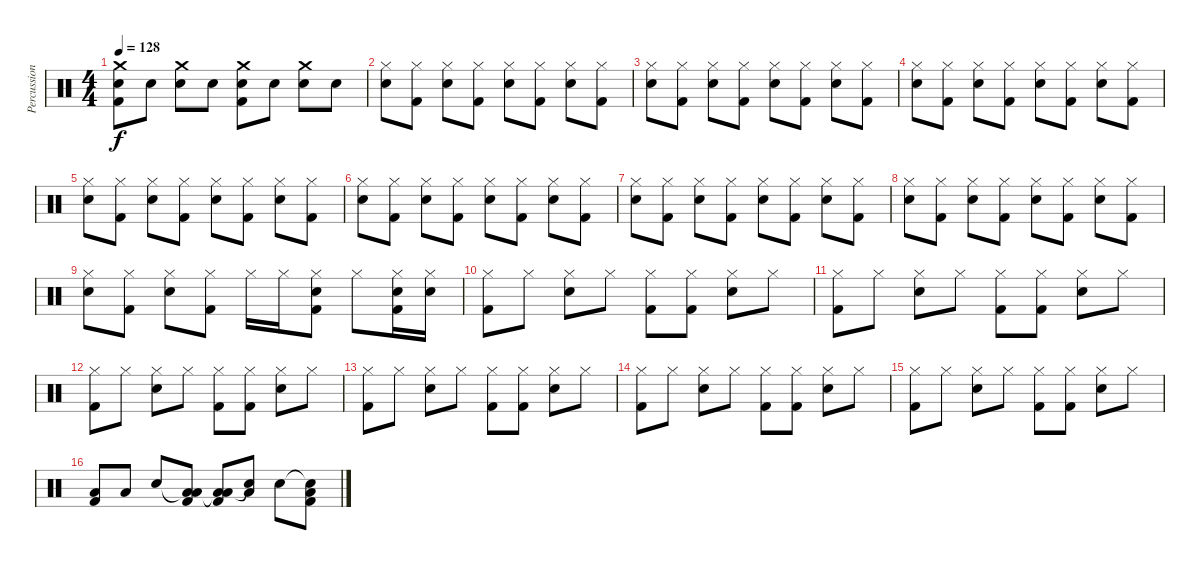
\track ("Percussion" "Percussion") {instrument percussion}
\staff {score}
\articulation defaults
\ts (4 4)
\tempo 128
\clef neutral
\ks c
("Crash medium (hit)" "Snare (hit) 2" "Kick (hit) 2").8{dy f} "Snare (hit) 2".8 ("Crash medium (hit)" "Snare (hit) 2").8 "Snare (hit) 2".8 ("Crash medium (hit)" "Snare (hit) 2" "Kick (hit) 2").8 "Snare (hit) 2".8 ("Crash medium (hit)" "Snare (hit) 2").8 "Snare (hit) 2".8 |
("Hi-Hat (closed)" "Snare (hit) 2").8 ("Hi-Hat (closed)" "Kick (hit) 2").8 ("Hi-Hat (closed)" "Snare (hit) 2").8 ("Hi-Hat (closed)" "Kick (hit) 2").8 ("Hi-Hat (closed)" "Snare (hit) 2").8 ("Hi-Hat (closed)" "Kick (hit) 2").8 ("Hi-Hat (closed)" "Snare (hit) 2").8 ("Hi-Hat (closed)" "Kick (hit) 2").8 |
("Hi-Hat (closed)" "Snare (hit) 2").8 ("Hi-Hat (closed)" "Kick (hit) 2").8 ("Hi-Hat (closed)" "Snare (hit) 2").8 ("Hi-Hat (closed)" "Kick (hit) 2").8 ("Hi-Hat (closed)" "Snare (hit) 2").8 ("Hi-Hat (closed)" "Kick (hit) 2").8 ("Hi-Hat (closed)" "Snare (hit) 2").8 ("Hi-Hat (closed)" "Kick (hit) 2").8 |
("Hi-Hat (closed)" "Snare (hit) 2").8 ("Hi-Hat (closed)" "Kick (hit) 2").8 ("Hi-Hat (closed)" "Snare (hit) 2").8 ("Hi-Hat (closed)" "Kick (hit) 2").8 ("Hi-Hat (closed)" "Snare (hit) 2").8 ("Hi-Hat (closed)" "Kick (hit) 2").8 ("Hi-Hat (closed)" "Snare (hit) 2").8 ("Hi-Hat (closed)" "Kick (hit) 2").8 |
("Hi-Hat (closed)" "Snare (hit) 2").8 ("Hi-Hat (closed)" "Kick (hit) 2").8 ("Hi-Hat (closed)" "Snare (hit) 2").8 ("Hi-Hat (closed)" "Kick (hit) 2").8 ("Hi-Hat (closed)" "Snare (hit) 2").8 ("Hi-Hat (closed)" "Kick (hit) 2").8 ("Hi-Hat (closed)" "Snare (hit) 2").8 ("Hi-Hat (closed)" "Kick (hit) 2").8 |
("Hi-Hat (closed)" "Snare (hit) 2").8 ("Hi-Hat (closed)" "Kick (hit) 2").8 ("Hi-Hat (closed)" "Snare (hit) 2").8 ("Hi-Hat (closed)" "Kick (hit) 2").8 ("Hi-Hat (closed)" "Snare (hit) 2").8 ("Hi-Hat (closed)" "Kick (hit) 2").8 ("Hi-Hat (closed)" "Snare (hit) 2").8 ("Hi-Hat (closed)" "Kick (hit) 2").8 |
("Hi-Hat (closed)" "Snare (hit) 2").8 ("Hi-Hat (closed)" "Kick (hit) 2").8 ("Hi-Hat (closed)" "Snare (hit) 2").8 ("Hi-Hat (closed)" "Kick (hit) 2").8 ("Hi-Hat (closed)" "Snare (hit) 2").8 ("Hi-Hat (closed)" "Kick (hit) 2").8 ("Hi-Hat (closed)" "Snare (hit) 2").8 ("Hi-Hat (closed)" "Kick (hit) 2").8 |
("Hi-Hat (closed)" "Snare (hit) 2").8 ("Hi-Hat (closed)" "Kick (hit) 2").8 ("Hi-Hat (closed)" "Snare (hit) 2").8 ("Hi-Hat (closed)" "Kick (hit) 2").8 ("Hi-Hat (closed)" "Snare (hit) 2").8 ("Hi-Hat (closed)" "Kick (hit) 2").8 ("Hi-Hat (closed)" "Snare (hit) 2").8 ("Hi-Hat (closed)" "Kick (hit) 2").8 |
("Hi-Hat (closed)" "Snare (hit) 2").8 ("Hi-Hat (closed)" "Kick (hit) 2").8 ("Hi-Hat (closed)" "Snare (hit) 2").8 ("Hi-Hat (closed)" "Kick (hit) 2").8 "Hi-Hat (closed)".16 "Hi-Hat (closed)".16 ("Hi-Hat (closed)" "Snare (hit) 2" "Kick (hit) 2").8 "Hi-Hat (closed)".8 ("Hi-Hat (closed)" "Snare (hit) 2" "Kick (hit) 2").16 ("Hi-Hat (closed)" "Snare (hit) 2").16 |
("Hi-Hat (closed)" "Kick (hit) 2").8 "Hi-Hat (closed)".8 ("Hi-Hat (closed)" "Snare (hit) 2").8 "Hi-Hat (closed)".8 ("Hi-Hat (closed)" "Kick (hit) 2").8 ("Hi-Hat (closed)" "Kick (hit) 2").8 ("Hi-Hat (closed)" "Snare (hit) 2").8 "Hi-Hat (closed)".8 |
("Hi-Hat (closed)" "Kick (hit) 2").8 "Hi-Hat (closed)".8 ("Hi-Hat (closed)" "Snare (hit) 2").8 "Hi-Hat (closed)".8 ("Hi-Hat (closed)" "Kick (hit) 2").8 ("Hi-Hat (closed)" "Kick (hit) 2").8 ("Hi-Hat (closed)" "Snare (hit) 2").8 "Hi-Hat (closed)".8 |
("Hi-Hat (closed)" "Kick (hit) 2").8 "Hi-Hat (closed)".8 ("Hi-Hat (closed)" "Snare (hit) 2").8 "Hi-Hat (closed)".8 ("Hi-Hat (closed)" "Kick (hit) 2").8 ("Hi-Hat (closed)" "Kick (hit) 2").8 ("Hi-Hat (closed)" "Snare (hit) 2").8 "Hi-Hat (closed)".8 |
("Hi-Hat (closed)" "Kick (hit) 2").8 "Hi-Hat (closed)".8 ("Hi-Hat (closed)" "Snare (hit) 2").8 "Hi-Hat (closed)".8 ("Hi-Hat (closed)" "Kick (hit) 2").8 ("Hi-Hat (closed)" "Kick (hit) 2").8 ("Hi-Hat (closed)" "Snare (hit) 2").8 "Hi-Hat (closed)".8 |
("Hi-Hat (closed)" "Kick (hit) 2").8 "Hi-Hat (closed)".8 ("Hi-Hat (closed)" "Snare (hit) 2").8 "Hi-Hat (closed)".8 ("Hi-Hat (closed)" "Kick (hit) 2").8 ("Hi-Hat (closed)" "Kick (hit) 2").8 ("Hi-Hat (closed)" "Snare (hit) 2").8 "Hi-Hat (closed)".8 |
("Hi-Hat (closed)" "Kick (hit) 2").8 "Hi-Hat (closed)".8 ("Hi-Hat (closed)" "Snare (hit) 2").8 "Hi-Hat (closed)".8 ("Hi-Hat (closed)" "Kick (hit) 2").8 ("Hi-Hat (closed)" "Kick (hit) 2").8 ("Hi-Hat (closed)" "Snare (hit) 2").8 "Hi-Hat (closed)".8 |
("Low Floor Tom (hit)" "Kick (hit) 2").8 "Low Floor Tom (hit)".8 "Snare (hit) 2".8 ("Low Tom (hit)"{t} "Low Floor Tom (hit)" "Kick (hit) 2").8 ("Low Tom (hit)"{t} "Low Floor Tom (hit)" "Kick (hit) 2").8 ("Snare (hit)"{t} "Low Floor Tom (hit)").8 "Snare (hit) 2".8 ("Snare (hit)"{t} "Low Floor Tom (hit)" "Kick (hit) 2").8
